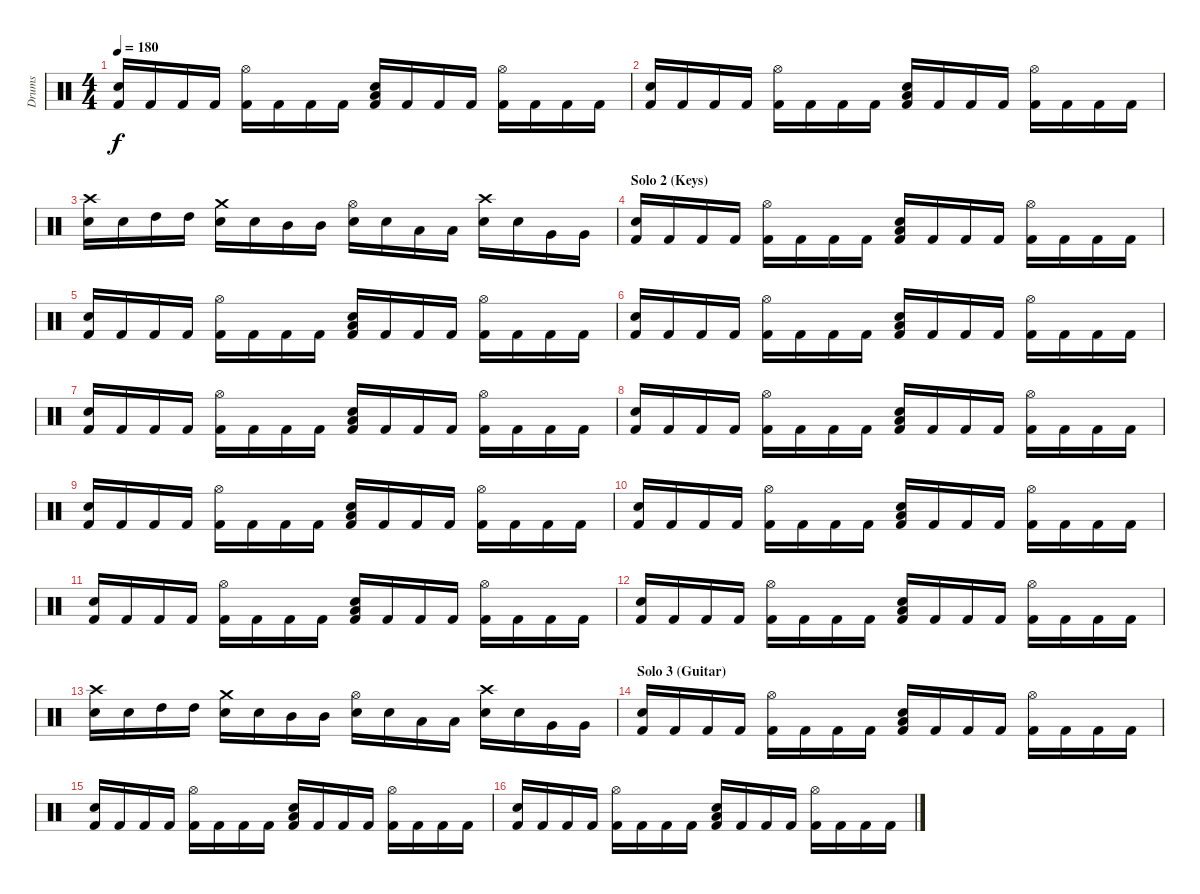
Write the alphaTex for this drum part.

\track ("Drums" "Drums") {instrument percussion}
\staff {score}
\articulation defaults
\ts (4 4)
\tempo 180
\clef neutral
\ks c
("Kick (hit) 2" "Electric Snare (hit)").16{dy f} "Kick (hit) 2".16 "Kick (hit) 2".16 "Kick (hit) 2".16 ("Kick (hit) 2" "Hi-Hat (open)").16 "Kick (hit) 2".16 "Kick (hit) 2".16 "Kick (hit) 2".16 ("Kick (hit) 2" "Low Tom (hit)" "Electric Snare (hit)").16 "Kick (hit) 2".16 "Kick (hit) 2".16 "Kick (hit) 2".16 ("Kick (hit) 2" "Hi-Hat (open)").16 "Kick (hit) 2".16 "Kick (hit) 2".16 "Kick (hit) 2".16 |
("Kick (hit) 2" "Electric Snare (hit)").16 "Kick (hit) 2".16 "Kick (hit) 2".16 "Kick (hit) 2".16 ("Kick (hit) 2" "Hi-Hat (open)").16 "Kick (hit) 2".16 "Kick (hit) 2".16 "Kick (hit) 2".16 ("Kick (hit) 2" "Low Tom (hit)" "Electric Snare (hit)").16 "Kick (hit) 2".16 "Kick (hit) 2".16 "Kick (hit) 2".16 ("Kick (hit) 2" "Hi-Hat (open)").16 "Kick (hit) 2".16 "Kick (hit) 2".16 "Kick (hit) 2".16 |
("Electric Snare (hit)" "Crash high (hit)").16 "Electric Snare (hit)".16 "High Tom (hit)".16 "High Tom (hit)".16 ("Electric Snare (hit)" "Crash medium (hit)").16 "Electric Snare (hit)".16 "Mid Tom (hit)".16 "Mid Tom (hit)".16 ("Electric Snare (hit)" "Hi-Hat (open)").16 "Electric Snare (hit)".16 "Low Tom (hit)".16 "Low Tom (hit)".16 ("Electric Snare (hit)" "Crash high (hit)").16 "Electric Snare (hit)".16 "Very Low Tom (hit)".16 "Very Low Tom (hit)".16 |
\section ("" "Solo 2 (Keys)")
("Kick (hit) 2" "Electric Snare (hit)").16 "Kick (hit) 2".16 "Kick (hit) 2".16 "Kick (hit) 2".16 ("Kick (hit) 2" "Hi-Hat (open)").16 "Kick (hit) 2".16 "Kick (hit) 2".16 "Kick (hit) 2".16 ("Kick (hit) 2" "Low Tom (hit)" "Electric Snare (hit)").16 "Kick (hit) 2".16 "Kick (hit) 2".16 "Kick (hit) 2".16 ("Kick (hit) 2" "Hi-Hat (open)").16 "Kick (hit) 2".16 "Kick (hit) 2".16 "Kick (hit) 2".16 |
("Kick (hit) 2" "Electric Snare (hit)").16 "Kick (hit) 2".16 "Kick (hit) 2".16 "Kick (hit) 2".16 ("Kick (hit) 2" "Hi-Hat (open)").16 "Kick (hit) 2".16 "Kick (hit) 2".16 "Kick (hit) 2".16 ("Kick (hit) 2" "Low Tom (hit)" "Electric Snare (hit)").16 "Kick (hit) 2".16 "Kick (hit) 2".16 "Kick (hit) 2".16 ("Kick (hit) 2" "Hi-Hat (open)").16 "Kick (hit) 2".16 "Kick (hit) 2".16 "Kick (hit) 2".16 |
("Kick (hit) 2" "Electric Snare (hit)").16 "Kick (hit) 2".16 "Kick (hit) 2".16 "Kick (hit) 2".16 ("Kick (hit) 2" "Hi-Hat (open)").16 "Kick (hit) 2".16 "Kick (hit) 2".16 "Kick (hit) 2".16 ("Kick (hit) 2" "Low Tom (hit)" "Electric Snare (hit)").16 "Kick (hit) 2".16 "Kick (hit) 2".16 "Kick (hit) 2".16 ("Kick (hit) 2" "Hi-Hat (open)").16 "Kick (hit) 2".16 "Kick (hit) 2".16 "Kick (hit) 2".16 |
("Kick (hit) 2" "Electric Snare (hit)").16 "Kick (hit) 2".16 "Kick (hit) 2".16 "Kick (hit) 2".16 ("Kick (hit) 2" "Hi-Hat (open)").16 "Kick (hit) 2".16 "Kick (hit) 2".16 "Kick (hit) 2".16 ("Kick (hit) 2" "Low Tom (hit)" "Electric Snare (hit)").16 "Kick (hit) 2".16 "Kick (hit) 2".16 "Kick (hit) 2".16 ("Kick (hit) 2" "Hi-Hat (open)").16 "Kick (hit) 2".16 "Kick (hit) 2".16 "Kick (hit) 2".16 |
("Kick (hit) 2" "Electric Snare (hit)").16 "Kick (hit) 2".16 "Kick (hit) 2".16 "Kick (hit) 2".16 ("Kick (hit) 2" "Hi-Hat (open)").16 "Kick (hit) 2".16 "Kick (hit) 2".16 "Kick (hit) 2".16 ("Kick (hit) 2" "Low Tom (hit)" "Electric Snare (hit)").16 "Kick (hit) 2".16 "Kick (hit) 2".16 "Kick (hit) 2".16 ("Kick (hit) 2" "Hi-Hat (open)").16 "Kick (hit) 2".16 "Kick (hit) 2".16 "Kick (hit) 2".16 |
("Kick (hit) 2" "Electric Snare (hit)").16 "Kick (hit) 2".16 "Kick (hit) 2".16 "Kick (hit) 2".16 ("Kick (hit) 2" "Hi-Hat (open)").16 "Kick (hit) 2".16 "Kick (hit) 2".16 "Kick (hit) 2".16 ("Kick (hit) 2" "Low Tom (hit)" "Electric Snare (hit)").16 "Kick (hit) 2".16 "Kick (hit) 2".16 "Kick (hit) 2".16 ("Kick (hit) 2" "Hi-Hat (open)").16 "Kick (hit) 2".16 "Kick (hit) 2".16 "Kick (hit) 2".16 |
("Kick (hit) 2" "Electric Snare (hit)").16 "Kick (hit) 2".16 "Kick (hit) 2".16 "Kick (hit) 2".16 ("Kick (hit) 2" "Hi-Hat (open)").16 "Kick (hit) 2".16 "Kick (hit) 2".16 "Kick (hit) 2".16 ("Kick (hit) 2" "Low Tom (hit)" "Electric Snare (hit)").16 "Kick (hit) 2".16 "Kick (hit) 2".16 "Kick (hit) 2".16 ("Kick (hit) 2" "Hi-Hat (open)").16 "Kick (hit) 2".16 "Kick (hit) 2".16 "Kick (hit) 2".16 |
("Kick (hit) 2" "Electric Snare (hit)").16 "Kick (hit) 2".16 "Kick (hit) 2".16 "Kick (hit) 2".16 ("Kick (hit) 2" "Hi-Hat (open)").16 "Kick (hit) 2".16 "Kick (hit) 2".16 "Kick (hit) 2".16 ("Kick (hit) 2" "Low Tom (hit)" "Electric Snare (hit)").16 "Kick (hit) 2".16 "Kick (hit) 2".16 "Kick (hit) 2".16 ("Kick (hit) 2" "Hi-Hat (open)").16 "Kick (hit) 2".16 "Kick (hit) 2".16 "Kick (hit) 2".16 |
("Kick (hit) 2" "Electric Snare (hit)").16 "Kick (hit) 2".16 "Kick (hit) 2".16 "Kick (hit) 2".16 ("Kick (hit) 2" "Hi-Hat (open)").16 "Kick (hit) 2".16 "Kick (hit) 2".16 "Kick (hit) 2".16 ("Kick (hit) 2" "Low Tom (hit)" "Electric Snare (hit)").16 "Kick (hit) 2".16 "Kick (hit) 2".16 "Kick (hit) 2".16 ("Kick (hit) 2" "Hi-Hat (open)").16 "Kick (hit) 2".16 "Kick (hit) 2".16 "Kick (hit) 2".16 |
("Electric Snare (hit)" "Crash high (hit)").16 "Electric Snare (hit)".16 "High Tom (hit)".16 "High Tom (hit)".16 ("Electric Snare (hit)" "Crash medium (hit)").16 "Electric Snare (hit)".16 "Mid Tom (hit)".16 "Mid Tom (hit)".16 ("Electric Snare (hit)" "Hi-Hat (open)").16 "Electric Snare (hit)".16 "Low Tom (hit)".16 "Low Tom (hit)".16 ("Electric Snare (hit)" "Crash high (hit)").16 "Electric Snare (hit)".16 "Very Low Tom (hit)".16 "Very Low Tom (hit)".16 |
\section ("" "Solo 3 (Guitar)")
("Kick (hit) 2" "Electric Snare (hit)").16 "Kick (hit) 2".16 "Kick (hit) 2".16 "Kick (hit) 2".16 ("Kick (hit) 2" "Hi-Hat (open)").16 "Kick (hit) 2".16 "Kick (hit) 2".16 "Kick (hit) 2".16 ("Kick (hit) 2" "Low Tom (hit)" "Electric Snare (hit)").16 "Kick (hit) 2".16 "Kick (hit) 2".16 "Kick (hit) 2".16 ("Kick (hit) 2" "Hi-Hat (open)").16 "Kick (hit) 2".16 "Kick (hit) 2".16 "Kick (hit) 2".16 |
("Kick (hit) 2" "Electric Snare (hit)").16 "Kick (hit) 2".16 "Kick (hit) 2".16 "Kick (hit) 2".16 ("Kick (hit) 2" "Hi-Hat (open)").16 "Kick (hit) 2".16 "Kick (hit) 2".16 "Kick (hit) 2".16 ("Kick (hit) 2" "Low Tom (hit)" "Electric Snare (hit)").16 "Kick (hit) 2".16 "Kick (hit) 2".16 "Kick (hit) 2".16 ("Kick (hit) 2" "Hi-Hat (open)").16 "Kick (hit) 2".16 "Kick (hit) 2".16 "Kick (hit) 2".16 |
("Kick (hit) 2" "Electric Snare (hit)").16 "Kick (hit) 2".16 "Kick (hit) 2".16 "Kick (hit) 2".16 ("Kick (hit) 2" "Hi-Hat (open)").16 "Kick (hit) 2".16 "Kick (hit) 2".16 "Kick (hit) 2".16 ("Kick (hit) 2" "Low Tom (hit)" "Electric Snare (hit)").16 "Kick (hit) 2".16 "Kick (hit) 2".16 "Kick (hit) 2".16 ("Kick (hit) 2" "Hi-Hat (open)").16 "Kick (hit) 2".16 "Kick (hit) 2".16 "Kick (hit) 2".16
